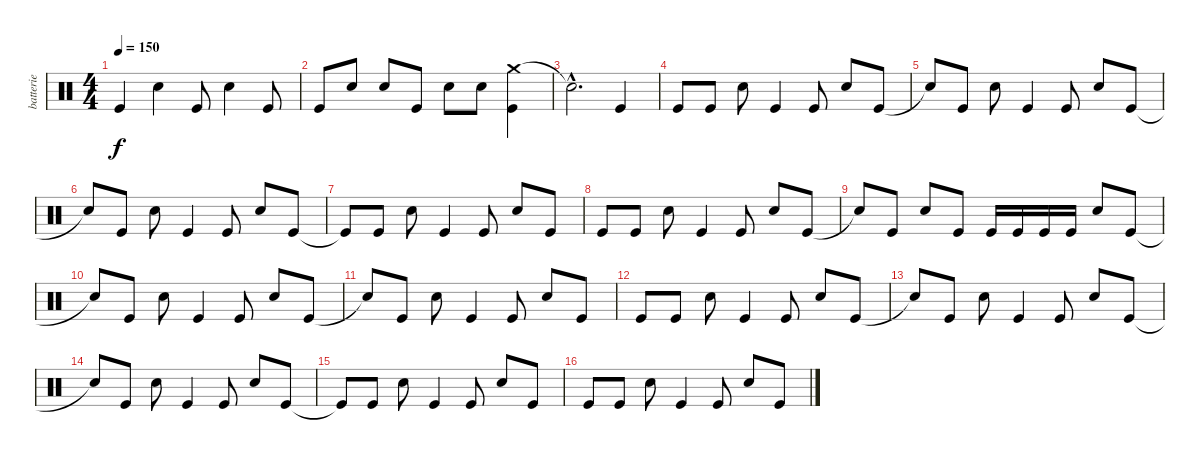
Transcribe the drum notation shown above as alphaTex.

\track ("batterie" "batterie") {instrument percussion}
\staff {score}
\articulation defaults
\ts (4 4)
\tempo 150
\clef neutral
\ks c "Kick (hit)".4{dy f} "Snare (hit) 2".4 "Kick (hit)".8 "Snare (hit) 2".4 "Kick (hit)".8
|
"Kick (hit)".8 "Snare (hit) 2".8 "Snare (hit) 2".8 "Kick (hit)".8 "Snare (hit) 2".8 "Snare (hit) 2".8 ("Crash medium (hit)" "Kick (hit)").4 |
"Snare (hit)"{hac t}.2{d} "Kick (hit)".4 |
"Kick (hit)".8 "Kick (hit)".8 "Snare (hit) 2".8 "Kick (hit)".4 "Kick (hit)".8 "Snare (hit) 2".8 "Kick (hit)".8 |
"Snare (hit)"{t}.8 "Kick (hit)".8 "Snare (hit) 2".8 "Kick (hit)".4 "Kick (hit)".8 "Snare (hit) 2".8 "Kick (hit)".8 |
"Snare (hit)"{t}.8 "Kick (hit)".8 "Snare (hit) 2".8 "Kick (hit)".4 "Kick (hit)".8 "Snare (hit) 2".8 "Kick (hit)".8 |
"Kick (hit)"{t}.8 "Kick (hit)".8 "Snare (hit) 2".8 "Kick (hit)".4 "Kick (hit)".8 "Snare (hit) 2".8 "Kick (hit)".8 |
"Kick (hit)".8 "Kick (hit)".8 "Snare (hit) 2".8 "Kick (hit)".4 "Kick (hit)".8 "Snare (hit) 2".8 "Kick (hit)".8 |
"Snare (hit)"{t}.8 "Kick (hit)".8 "Snare (hit) 2".8 "Kick (hit)".8 "Kick (hit)".16 "Kick (hit)".16 "Kick (hit)".16 "Kick (hit)".16 "Snare (hit) 2".8 "Kick (hit)".8 |
"Snare (hit)"{t}.8 "Kick (hit)".8 "Snare (hit) 2".8 "Kick (hit)".4 "Kick (hit)".8 "Snare (hit) 2".8 "Kick (hit)".8 |
"Snare (hit)"{t}.8 "Kick (hit)".8 "Snare (hit) 2".8 "Kick (hit)".4 "Kick (hit)".8 "Snare (hit) 2".8 "Kick (hit)".8 |
"Kick (hit)".8 "Kick (hit)".8 "Snare (hit) 2".8 "Kick (hit)".4 "Kick (hit)".8 "Snare (hit) 2".8 "Kick (hit)".8 |
"Snare (hit)"{t}.8 "Kick (hit)".8 "Snare (hit) 2".8 "Kick (hit)".4 "Kick (hit)".8 "Snare (hit) 2".8 "Kick (hit)".8 |
"Snare (hit)"{t}.8 "Kick (hit)".8 "Snare (hit) 2".8 "Kick (hit)".4 "Kick (hit)".8 "Snare (hit) 2".8 "Kick (hit)".8 |
"Kick (hit)"{t}.8 "Kick (hit)".8 "Snare (hit) 2".8 "Kick (hit)".4 "Kick (hit)".8 "Snare (hit) 2".8 "Kick (hit)".8 |
"Kick (hit)".8 "Kick (hit)".8 "Snare (hit) 2".8 "Kick (hit)".4 "Kick (hit)".8 "Snare (hit) 2".8 "Kick (hit)".8
